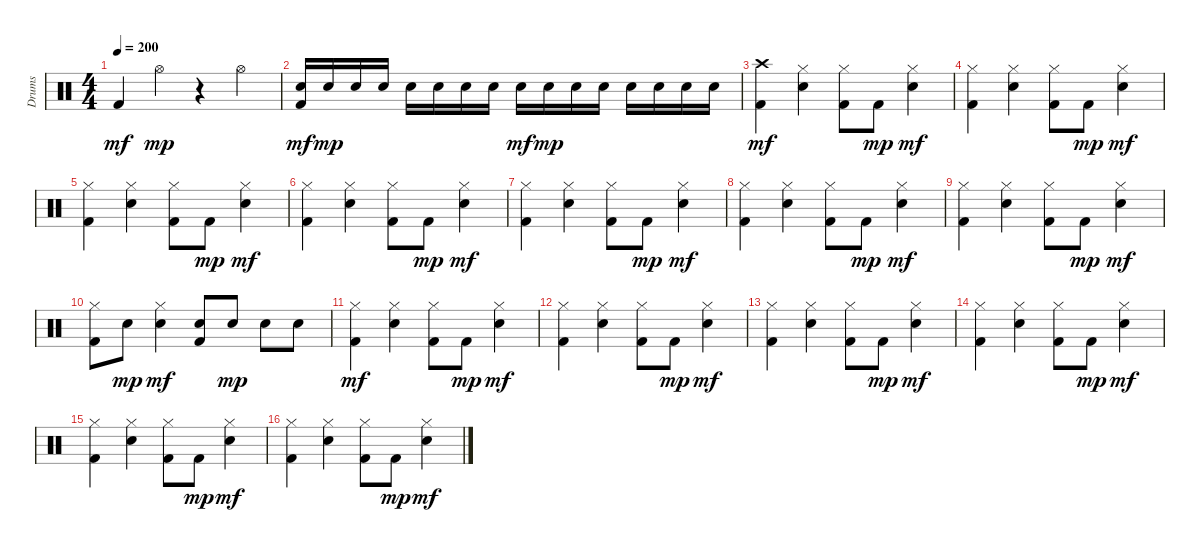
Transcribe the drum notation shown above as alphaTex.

\track ("Drums" "Drums") {instrument percussion}
\staff {score}
\articulation defaults
\ts (4 4)
\tempo 200
\clef neutral
\ks c "Kick (hit) 2".4{dy mf} "Hi-Hat (open)".4{dy mp}
r.4 "Hi-Hat (open)".4 |
("Snare (hit) 2" "Kick (hit) 2").16{dy mf} "Snare (hit) 2".16{dy mp} "Snare (hit) 2".16 "Snare (hit) 2".16 "Snare (hit) 2".16 "Snare (hit) 2".16 "Snare (hit) 2".16 "Snare (hit) 2".16 "Snare (hit) 2".16{dy mf} "Snare (hit) 2".16{dy mp} "Snare (hit) 2".16 "Snare (hit) 2".16 "Snare (hit) 2".16 "Snare (hit) 2".16 "Snare (hit) 2".16 "Snare (hit) 2".16 |
("Crash high (hit)" "Kick (hit) 2").4{dy mf} ("Snare (hit) 2" "Hi-Hat (closed)").4 ("Hi-Hat (closed)" "Kick (hit) 2").8 "Kick (hit) 2".8{dy mp} ("Snare (hit) 2" "Hi-Hat (closed)").4{dy mf} |
("Hi-Hat (closed)" "Kick (hit) 2").4 ("Snare (hit) 2" "Hi-Hat (closed)").4 ("Hi-Hat (closed)" "Kick (hit) 2").8 "Kick (hit) 2".8{dy mp} ("Snare (hit) 2" "Hi-Hat (closed)").4{dy mf} |
("Hi-Hat (closed)" "Kick (hit) 2").4 ("Snare (hit) 2" "Hi-Hat (closed)").4 ("Hi-Hat (closed)" "Kick (hit) 2").8 "Kick (hit) 2".8{dy mp} ("Snare (hit) 2" "Hi-Hat (closed)").4{dy mf} |
("Hi-Hat (closed)" "Kick (hit) 2").4 ("Snare (hit) 2" "Hi-Hat (closed)").4 ("Hi-Hat (closed)" "Kick (hit) 2").8 "Kick (hit) 2".8{dy mp} ("Snare (hit) 2" "Hi-Hat (closed)").4{dy mf} |
("Hi-Hat (closed)" "Kick (hit) 2").4 ("Snare (hit) 2" "Hi-Hat (closed)").4 ("Hi-Hat (closed)" "Kick (hit) 2").8 "Kick (hit) 2".8{dy mp} ("Snare (hit) 2" "Hi-Hat (closed)").4{dy mf} |
("Hi-Hat (closed)" "Kick (hit) 2").4 ("Snare (hit) 2" "Hi-Hat (closed)").4 ("Hi-Hat (closed)" "Kick (hit) 2").8 "Kick (hit) 2".8{dy mp} ("Snare (hit) 2" "Hi-Hat (closed)").4{dy mf} |
("Hi-Hat (closed)" "Kick (hit) 2").4 ("Snare (hit) 2" "Hi-Hat (closed)").4 ("Hi-Hat (closed)" "Kick (hit) 2").8 "Kick (hit) 2".8{dy mp} ("Snare (hit) 2" "Hi-Hat (closed)").4{dy mf} |
("Hi-Hat (closed)" "Kick (hit) 2").8 "Snare (hit) 2".8{dy mp} ("Snare (hit) 2" "Hi-Hat (closed)").4{dy mf} ("Snare (hit) 2" "Kick (hit) 2").8 "Snare (hit) 2".8{dy mp} "Snare (hit) 2".8 "Snare (hit) 2".8 |
("Hi-Hat (closed)" "Kick (hit) 2").4{dy mf} ("Snare (hit) 2" "Hi-Hat (closed)").4 ("Hi-Hat (closed)" "Kick (hit) 2").8 "Kick (hit) 2".8{dy mp} ("Snare (hit) 2" "Hi-Hat (closed)").4{dy mf} |
("Hi-Hat (closed)" "Kick (hit) 2").4 ("Snare (hit) 2" "Hi-Hat (closed)").4 ("Hi-Hat (closed)" "Kick (hit) 2").8 "Kick (hit) 2".8{dy mp} ("Snare (hit) 2" "Hi-Hat (closed)").4{dy mf} |
("Hi-Hat (closed)" "Kick (hit) 2").4 ("Snare (hit) 2" "Hi-Hat (closed)").4 ("Hi-Hat (closed)" "Kick (hit) 2").8 "Kick (hit) 2".8{dy mp} ("Snare (hit) 2" "Hi-Hat (closed)").4{dy mf} |
("Hi-Hat (closed)" "Kick (hit) 2").4 ("Snare (hit) 2" "Hi-Hat (closed)").4 ("Hi-Hat (closed)" "Kick (hit) 2").8 "Kick (hit) 2".8{dy mp} ("Snare (hit) 2" "Hi-Hat (closed)").4{dy mf} |
("Hi-Hat (closed)" "Kick (hit) 2").4 ("Snare (hit) 2" "Hi-Hat (closed)").4 ("Hi-Hat (closed)" "Kick (hit) 2").8 "Kick (hit) 2".8{dy mp} ("Snare (hit) 2" "Hi-Hat (closed)").4{dy mf} |
("Hi-Hat (closed)" "Kick (hit) 2").4 ("Snare (hit) 2" "Hi-Hat (closed)").4 ("Hi-Hat (closed)" "Kick (hit) 2").8 "Kick (hit) 2".8{dy mp} ("Snare (hit) 2" "Hi-Hat (closed)").4{dy mf}
